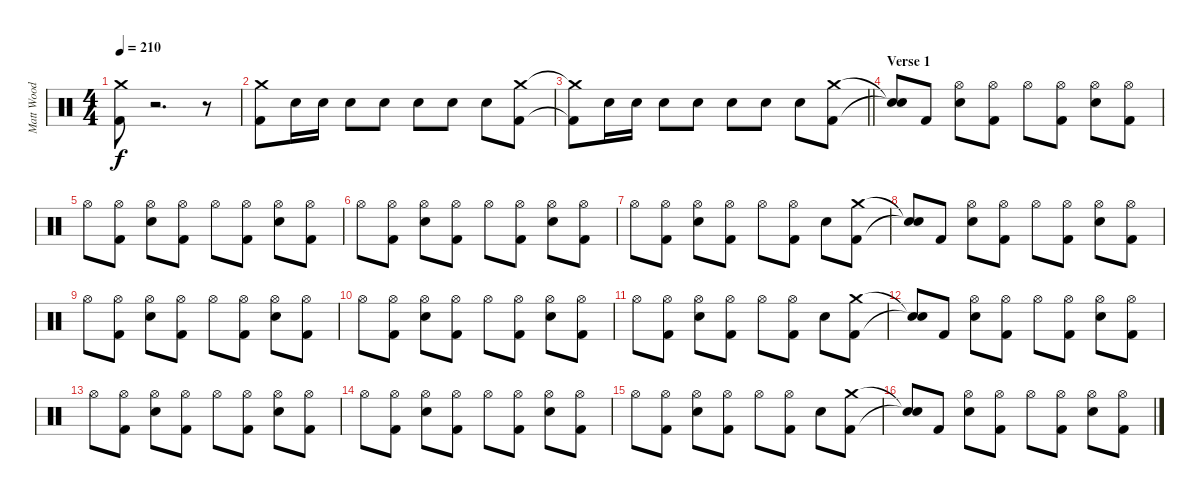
\track ("Matt Wood" "Matt Wood") {instrument percussion}
\staff {score}
\articulation defaults
\ts (4 4)
\tempo 210
\clef neutral
\ks c
("Crash medium (hit)"{t} "Kick (hit) 2"{t}).8{dy f} r.2{d} r.8 |
("Crash medium (hit)" "Kick (hit) 2").8 "Snare (hit) 2".16 "Snare (hit) 2".16 "Snare (hit) 2".8 "Snare (hit) 2".8 "Snare (hit) 2".8 "Snare (hit) 2".8 "Snare (hit) 2".8 ("Crash medium (hit)" "Kick (hit) 2").8 |
\barLineRight lightlight
("Crash medium (hit)"{t} "Kick (hit) 2"{t}).8 "Snare (hit) 2".16 "Snare (hit) 2".16 "Snare (hit) 2".8 "Snare (hit) 2".8 "Snare (hit) 2".8 "Snare (hit) 2".8 "Snare (hit) 2".8 ("Crash medium (hit)" "Kick (hit) 2").8 |
\section ("" "Verse 1")
("Snare (hit)"{t} "Snare (hit)"{t}).8 "Kick (hit) 2".8 ("Hi-Hat (open)" "Snare (hit) 2").8 ("Hi-Hat (open)" "Kick (hit) 2").8 "Hi-Hat (open)".8 ("Hi-Hat (open)" "Kick (hit) 2").8 ("Hi-Hat (open)" "Snare (hit) 2").8 ("Hi-Hat (open)" "Kick (hit) 2").8 |
"Hi-Hat (open)".8 ("Hi-Hat (open)" "Kick (hit) 2").8 ("Hi-Hat (open)" "Snare (hit) 2").8 ("Hi-Hat (open)" "Kick (hit) 2").8 "Hi-Hat (open)".8 ("Hi-Hat (open)" "Kick (hit) 2").8 ("Hi-Hat (open)" "Snare (hit) 2").8 ("Hi-Hat (open)" "Kick (hit) 2").8 |
"Hi-Hat (open)".8 ("Hi-Hat (open)" "Kick (hit) 2").8 ("Hi-Hat (open)" "Snare (hit) 2").8 ("Hi-Hat (open)" "Kick (hit) 2").8 "Hi-Hat (open)".8 ("Hi-Hat (open)" "Kick (hit) 2").8 ("Hi-Hat (open)" "Snare (hit) 2").8 ("Hi-Hat (open)" "Kick (hit) 2").8 |
"Hi-Hat (open)".8 ("Hi-Hat (open)" "Kick (hit) 2").8 ("Hi-Hat (open)" "Snare (hit) 2").8 ("Hi-Hat (open)" "Kick (hit) 2").8 "Hi-Hat (open)".8 ("Hi-Hat (open)" "Kick (hit) 2").8 "Snare (hit) 2".8 ("Crash medium (hit)" "Kick (hit) 2").8 |
("Snare (hit)"{t} "Snare (hit)"{t}).8 "Kick (hit) 2".8 ("Hi-Hat (open)" "Snare (hit) 2").8 ("Hi-Hat (open)" "Kick (hit) 2").8 "Hi-Hat (open)".8 ("Hi-Hat (open)" "Kick (hit) 2").8 ("Hi-Hat (open)" "Snare (hit) 2").8 ("Hi-Hat (open)" "Kick (hit) 2").8 |
"Hi-Hat (open)".8 ("Hi-Hat (open)" "Kick (hit) 2").8 ("Hi-Hat (open)" "Snare (hit) 2").8 ("Hi-Hat (open)" "Kick (hit) 2").8 "Hi-Hat (open)".8 ("Hi-Hat (open)" "Kick (hit) 2").8 ("Hi-Hat (open)" "Snare (hit) 2").8 ("Hi-Hat (open)" "Kick (hit) 2").8 |
"Hi-Hat (open)".8 ("Hi-Hat (open)" "Kick (hit) 2").8 ("Hi-Hat (open)" "Snare (hit) 2").8 ("Hi-Hat (open)" "Kick (hit) 2").8 "Hi-Hat (open)".8 ("Hi-Hat (open)" "Kick (hit) 2").8 ("Hi-Hat (open)" "Snare (hit) 2").8 ("Hi-Hat (open)" "Kick (hit) 2").8 |
"Hi-Hat (open)".8 ("Hi-Hat (open)" "Kick (hit) 2").8 ("Hi-Hat (open)" "Snare (hit) 2").8 ("Hi-Hat (open)" "Kick (hit) 2").8 "Hi-Hat (open)".8 ("Hi-Hat (open)" "Kick (hit) 2").8 "Snare (hit) 2".8 ("Crash medium (hit)" "Kick (hit) 2").8 |
("Snare (hit)"{t} "Snare (hit)"{t}).8 "Kick (hit) 2".8 ("Hi-Hat (open)" "Snare (hit) 2").8 ("Hi-Hat (open)" "Kick (hit) 2").8 "Hi-Hat (open)".8 ("Hi-Hat (open)" "Kick (hit) 2").8 ("Hi-Hat (open)" "Snare (hit) 2").8 ("Hi-Hat (open)" "Kick (hit) 2").8 |
"Hi-Hat (open)".8 ("Hi-Hat (open)" "Kick (hit) 2").8 ("Hi-Hat (open)" "Snare (hit) 2").8 ("Hi-Hat (open)" "Kick (hit) 2").8 "Hi-Hat (open)".8 ("Hi-Hat (open)" "Kick (hit) 2").8 ("Hi-Hat (open)" "Snare (hit) 2").8 ("Hi-Hat (open)" "Kick (hit) 2").8 |
"Hi-Hat (open)".8 ("Hi-Hat (open)" "Kick (hit) 2").8 ("Hi-Hat (open)" "Snare (hit) 2").8 ("Hi-Hat (open)" "Kick (hit) 2").8 "Hi-Hat (open)".8 ("Hi-Hat (open)" "Kick (hit) 2").8 ("Hi-Hat (open)" "Snare (hit) 2").8 ("Hi-Hat (open)" "Kick (hit) 2").8 |
"Hi-Hat (open)".8 ("Hi-Hat (open)" "Kick (hit) 2").8 ("Hi-Hat (open)" "Snare (hit) 2").8 ("Hi-Hat (open)" "Kick (hit) 2").8 "Hi-Hat (open)".8 ("Hi-Hat (open)" "Kick (hit) 2").8 "Snare (hit) 2".8 ("Crash medium (hit)" "Kick (hit) 2").8 |
("Snare (hit)"{t} "Snare (hit)"{t}).8 "Kick (hit) 2".8 ("Hi-Hat (open)" "Snare (hit) 2").8 ("Hi-Hat (open)" "Kick (hit) 2").8 "Hi-Hat (open)".8 ("Hi-Hat (open)" "Kick (hit) 2").8 ("Hi-Hat (open)" "Snare (hit) 2").8 ("Hi-Hat (open)" "Kick (hit) 2").8
